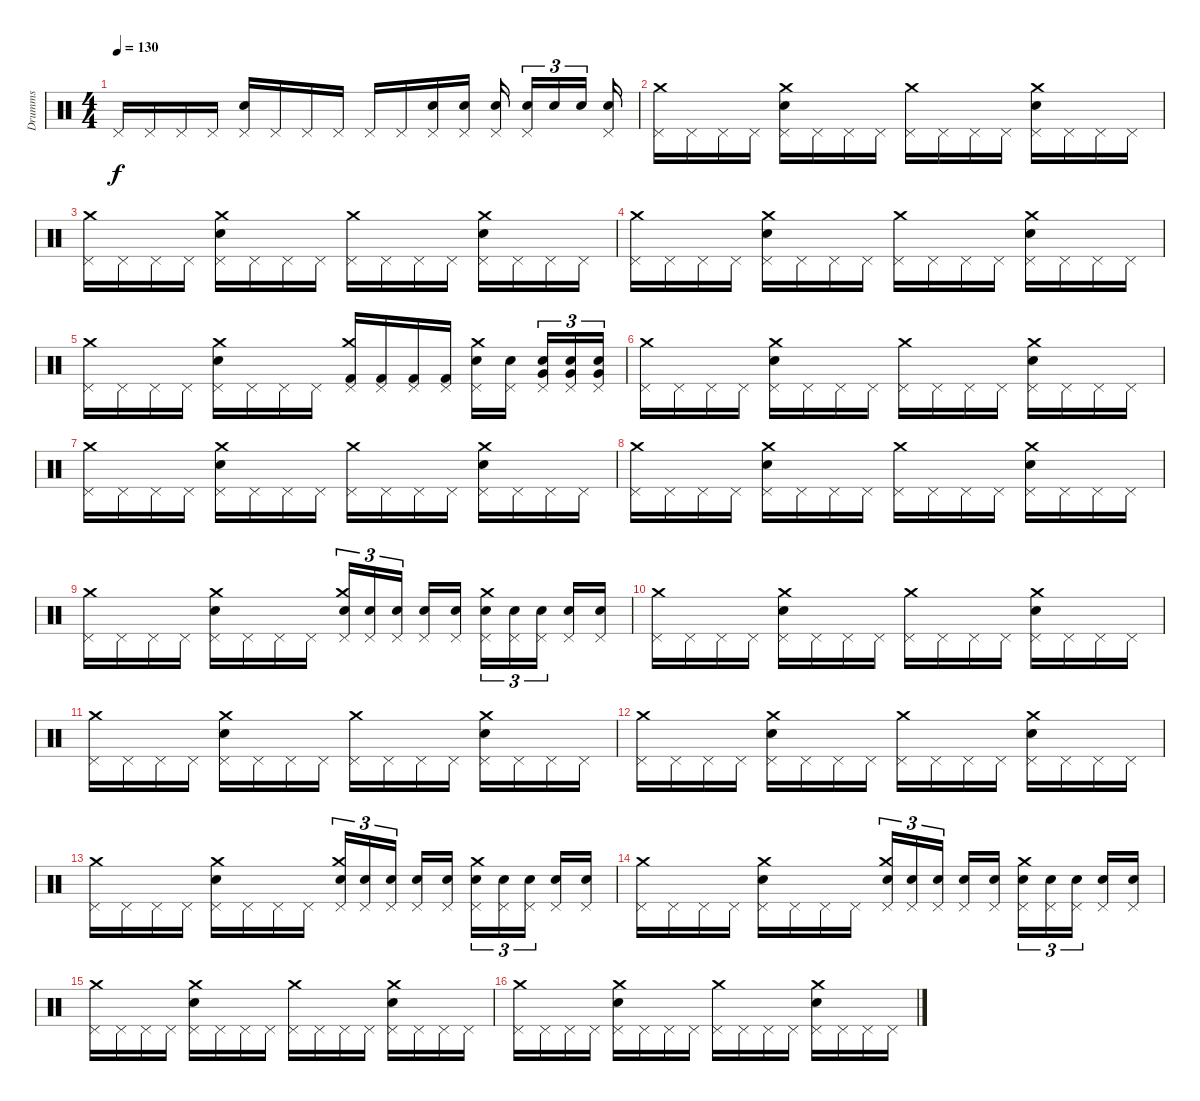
\track ("Drumms" "Drumms") {instrument percussion}
\staff {score}
\articulation defaults
\ts (4 4)
\tempo 130
\clef neutral
\ks c "Pedal Hi-Hat (hit)".16{dy f volume 11} "Pedal Hi-Hat (hit)".16 "Pedal Hi-Hat (hit)".16 "Pedal Hi-Hat (hit)".16
("Pedal Hi-Hat (hit)" "Electric Snare (hit)").16 "Pedal Hi-Hat (hit)".16 "Pedal Hi-Hat (hit)".16 "Pedal Hi-Hat (hit)".16 "Pedal Hi-Hat (hit)".16 "Pedal Hi-Hat (hit)".16 ("Pedal Hi-Hat (hit)" "Electric Snare (hit)").16 ("Pedal Hi-Hat (hit)" "Electric Snare (hit)").16 ("Pedal Hi-Hat (hit)" "Electric Snare (hit)").16 ("Pedal Hi-Hat (hit)" "Electric Snare (hit)").16{tu (3 2)} "Electric Snare (hit)".16{tu (3 2)} "Electric Snare (hit)".16{tu (3 2)} ("Pedal Hi-Hat (hit)" "Electric Snare (hit)").16 |
("Crash medium (hit)" "Pedal Hi-Hat (hit)").16 "Pedal Hi-Hat (hit)".16 "Pedal Hi-Hat (hit)".16 "Pedal Hi-Hat (hit)".16 ("Crash medium (hit)" "Electric Snare (hit)" "Pedal Hi-Hat (hit)").16 "Pedal Hi-Hat (hit)".16 "Pedal Hi-Hat (hit)".16 "Pedal Hi-Hat (hit)".16 ("Crash medium (hit)" "Pedal Hi-Hat (hit)").16 "Pedal Hi-Hat (hit)".16 "Pedal Hi-Hat (hit)".16 "Pedal Hi-Hat (hit)".16 ("Crash medium (hit)" "Electric Snare (hit)" "Pedal Hi-Hat (hit)").16 "Pedal Hi-Hat (hit)".16 "Pedal Hi-Hat (hit)".16 "Pedal Hi-Hat (hit)".16 |
("Crash medium (hit)" "Pedal Hi-Hat (hit)").16 "Pedal Hi-Hat (hit)".16 "Pedal Hi-Hat (hit)".16 "Pedal Hi-Hat (hit)".16 ("Crash medium (hit)" "Electric Snare (hit)" "Pedal Hi-Hat (hit)").16 "Pedal Hi-Hat (hit)".16 "Pedal Hi-Hat (hit)".16 "Pedal Hi-Hat (hit)".16 ("Crash medium (hit)" "Pedal Hi-Hat (hit)").16 "Pedal Hi-Hat (hit)".16 "Pedal Hi-Hat (hit)".16 "Pedal Hi-Hat (hit)".16 ("Crash medium (hit)" "Electric Snare (hit)" "Pedal Hi-Hat (hit)").16 "Pedal Hi-Hat (hit)".16 "Pedal Hi-Hat (hit)".16 "Pedal Hi-Hat (hit)".16 |
("Crash medium (hit)" "Pedal Hi-Hat (hit)").16 "Pedal Hi-Hat (hit)".16 "Pedal Hi-Hat (hit)".16 "Pedal Hi-Hat (hit)".16 ("Crash medium (hit)" "Electric Snare (hit)" "Pedal Hi-Hat (hit)").16 "Pedal Hi-Hat (hit)".16 "Pedal Hi-Hat (hit)".16 "Pedal Hi-Hat (hit)".16 ("Crash medium (hit)" "Pedal Hi-Hat (hit)").16 "Pedal Hi-Hat (hit)".16 "Pedal Hi-Hat (hit)".16 "Pedal Hi-Hat (hit)".16 ("Crash medium (hit)" "Electric Snare (hit)" "Pedal Hi-Hat (hit)").16 "Pedal Hi-Hat (hit)".16 "Pedal Hi-Hat (hit)".16 "Pedal Hi-Hat (hit)".16 |
("Crash medium (hit)" "Pedal Hi-Hat (hit)").16 "Pedal Hi-Hat (hit)".16 "Pedal Hi-Hat (hit)".16 "Pedal Hi-Hat (hit)".16 ("Crash medium (hit)" "Electric Snare (hit)" "Pedal Hi-Hat (hit)").16 "Pedal Hi-Hat (hit)".16 "Pedal Hi-Hat (hit)".16 "Pedal Hi-Hat (hit)".16 ("Crash medium (hit)" "Kick (hit) 2" "Pedal Hi-Hat (hit)").16 ("Kick (hit) 2" "Pedal Hi-Hat (hit)").16 ("Kick (hit) 2" "Pedal Hi-Hat (hit)").16 ("Kick (hit) 2" "Pedal Hi-Hat (hit)").16 ("Crash medium (hit)" "Electric Snare (hit)" "Pedal Hi-Hat (hit)").16 ("Electric Snare (hit)" "Pedal Hi-Hat (hit)").16 ("Very Low Tom (hit)" "Electric Snare (hit)" "Pedal Hi-Hat (hit)").16{tu (3 2)} ("Very Low Tom (hit)" "Electric Snare (hit)" "Pedal Hi-Hat (hit)").16{tu (3 2)} ("Very Low Tom (hit)" "Electric Snare (hit)" "Pedal Hi-Hat (hit)").16{tu (3 2)} |
("Crash medium (hit)" "Pedal Hi-Hat (hit)").16 "Pedal Hi-Hat (hit)".16 "Pedal Hi-Hat (hit)".16 "Pedal Hi-Hat (hit)".16 ("Crash medium (hit)" "Electric Snare (hit)" "Pedal Hi-Hat (hit)").16 "Pedal Hi-Hat (hit)".16 "Pedal Hi-Hat (hit)".16 "Pedal Hi-Hat (hit)".16 ("Crash medium (hit)" "Pedal Hi-Hat (hit)").16 "Pedal Hi-Hat (hit)".16 "Pedal Hi-Hat (hit)".16 "Pedal Hi-Hat (hit)".16 ("Crash medium (hit)" "Electric Snare (hit)" "Pedal Hi-Hat (hit)").16 "Pedal Hi-Hat (hit)".16 "Pedal Hi-Hat (hit)".16 "Pedal Hi-Hat (hit)".16 |
("Crash medium (hit)" "Pedal Hi-Hat (hit)").16 "Pedal Hi-Hat (hit)".16 "Pedal Hi-Hat (hit)".16 "Pedal Hi-Hat (hit)".16 ("Crash medium (hit)" "Electric Snare (hit)" "Pedal Hi-Hat (hit)").16 "Pedal Hi-Hat (hit)".16 "Pedal Hi-Hat (hit)".16 "Pedal Hi-Hat (hit)".16 ("Crash medium (hit)" "Pedal Hi-Hat (hit)").16 "Pedal Hi-Hat (hit)".16 "Pedal Hi-Hat (hit)".16 "Pedal Hi-Hat (hit)".16 ("Crash medium (hit)" "Electric Snare (hit)" "Pedal Hi-Hat (hit)").16 "Pedal Hi-Hat (hit)".16 "Pedal Hi-Hat (hit)".16 "Pedal Hi-Hat (hit)".16 |
("Crash medium (hit)" "Pedal Hi-Hat (hit)").16 "Pedal Hi-Hat (hit)".16 "Pedal Hi-Hat (hit)".16 "Pedal Hi-Hat (hit)".16 ("Crash medium (hit)" "Electric Snare (hit)" "Pedal Hi-Hat (hit)").16 "Pedal Hi-Hat (hit)".16 "Pedal Hi-Hat (hit)".16 "Pedal Hi-Hat (hit)".16 ("Crash medium (hit)" "Pedal Hi-Hat (hit)").16 "Pedal Hi-Hat (hit)".16 "Pedal Hi-Hat (hit)".16 "Pedal Hi-Hat (hit)".16 ("Crash medium (hit)" "Electric Snare (hit)" "Pedal Hi-Hat (hit)").16 "Pedal Hi-Hat (hit)".16 "Pedal Hi-Hat (hit)".16 "Pedal Hi-Hat (hit)".16 |
("Crash medium (hit)" "Pedal Hi-Hat (hit)").16 "Pedal Hi-Hat (hit)".16 "Pedal Hi-Hat (hit)".16 "Pedal Hi-Hat (hit)".16 ("Crash medium (hit)" "Electric Snare (hit)" "Pedal Hi-Hat (hit)").16 "Pedal Hi-Hat (hit)".16 "Pedal Hi-Hat (hit)".16 "Pedal Hi-Hat (hit)".16 ("Crash medium (hit)" "Snare (hit) 2" "Pedal Hi-Hat (hit)").16{tu (3 2)} ("Snare (hit) 2" "Pedal Hi-Hat (hit)").16{tu (3 2)} ("Snare (hit) 2" "Pedal Hi-Hat (hit)").16{tu (3 2)} ("Snare (hit) 2" "Pedal Hi-Hat (hit)").16 ("Snare (hit) 2" "Pedal Hi-Hat (hit)").16 ("Crash medium (hit)" "Electric Snare (hit)" "Pedal Hi-Hat (hit)").16{tu (3 2)} ("Electric Snare (hit)" "Pedal Hi-Hat (hit)").16{tu (3 2)} ("Electric Snare (hit)" "Pedal Hi-Hat (hit)").16{tu (3 2)} ("Electric Snare (hit)" "Pedal Hi-Hat (hit)").16 ("Electric Snare (hit)" "Pedal Hi-Hat (hit)").16 |
("Crash medium (hit)" "Pedal Hi-Hat (hit)").16 "Pedal Hi-Hat (hit)".16 "Pedal Hi-Hat (hit)".16 "Pedal Hi-Hat (hit)".16 ("Crash medium (hit)" "Electric Snare (hit)" "Pedal Hi-Hat (hit)").16 "Pedal Hi-Hat (hit)".16 "Pedal Hi-Hat (hit)".16 "Pedal Hi-Hat (hit)".16 ("Crash medium (hit)" "Pedal Hi-Hat (hit)").16 "Pedal Hi-Hat (hit)".16 "Pedal Hi-Hat (hit)".16 "Pedal Hi-Hat (hit)".16 ("Crash medium (hit)" "Electric Snare (hit)" "Pedal Hi-Hat (hit)").16 "Pedal Hi-Hat (hit)".16 "Pedal Hi-Hat (hit)".16 "Pedal Hi-Hat (hit)".16 |
("Crash medium (hit)" "Pedal Hi-Hat (hit)").16 "Pedal Hi-Hat (hit)".16 "Pedal Hi-Hat (hit)".16 "Pedal Hi-Hat (hit)".16 ("Crash medium (hit)" "Electric Snare (hit)" "Pedal Hi-Hat (hit)").16 "Pedal Hi-Hat (hit)".16 "Pedal Hi-Hat (hit)".16 "Pedal Hi-Hat (hit)".16 ("Crash medium (hit)" "Pedal Hi-Hat (hit)").16 "Pedal Hi-Hat (hit)".16 "Pedal Hi-Hat (hit)".16 "Pedal Hi-Hat (hit)".16 ("Crash medium (hit)" "Electric Snare (hit)" "Pedal Hi-Hat (hit)").16 "Pedal Hi-Hat (hit)".16 "Pedal Hi-Hat (hit)".16 "Pedal Hi-Hat (hit)".16 |
("Crash medium (hit)" "Pedal Hi-Hat (hit)").16 "Pedal Hi-Hat (hit)".16 "Pedal Hi-Hat (hit)".16 "Pedal Hi-Hat (hit)".16 ("Crash medium (hit)" "Electric Snare (hit)" "Pedal Hi-Hat (hit)").16 "Pedal Hi-Hat (hit)".16 "Pedal Hi-Hat (hit)".16 "Pedal Hi-Hat (hit)".16 ("Crash medium (hit)" "Pedal Hi-Hat (hit)").16 "Pedal Hi-Hat (hit)".16 "Pedal Hi-Hat (hit)".16 "Pedal Hi-Hat (hit)".16 ("Crash medium (hit)" "Electric Snare (hit)" "Pedal Hi-Hat (hit)").16 "Pedal Hi-Hat (hit)".16 "Pedal Hi-Hat (hit)".16 "Pedal Hi-Hat (hit)".16 |
("Crash medium (hit)" "Pedal Hi-Hat (hit)").16 "Pedal Hi-Hat (hit)".16 "Pedal Hi-Hat (hit)".16 "Pedal Hi-Hat (hit)".16 ("Crash medium (hit)" "Electric Snare (hit)" "Pedal Hi-Hat (hit)").16 "Pedal Hi-Hat (hit)".16 "Pedal Hi-Hat (hit)".16 "Pedal Hi-Hat (hit)".16 ("Crash medium (hit)" "Snare (hit) 2" "Pedal Hi-Hat (hit)").16{tu (3 2)} ("Snare (hit) 2" "Pedal Hi-Hat (hit)").16{tu (3 2)} ("Snare (hit) 2" "Pedal Hi-Hat (hit)").16{tu (3 2)} ("Snare (hit) 2" "Pedal Hi-Hat (hit)").16 ("Snare (hit) 2" "Pedal Hi-Hat (hit)").16 ("Crash medium (hit)" "Electric Snare (hit)" "Pedal Hi-Hat (hit)").16{tu (3 2)} ("Electric Snare (hit)" "Pedal Hi-Hat (hit)").16{tu (3 2)} ("Electric Snare (hit)" "Pedal Hi-Hat (hit)").16{tu (3 2)} ("Electric Snare (hit)" "Pedal Hi-Hat (hit)").16 ("Electric Snare (hit)" "Pedal Hi-Hat (hit)").16 |
("Crash medium (hit)" "Pedal Hi-Hat (hit)").16 "Pedal Hi-Hat (hit)".16 "Pedal Hi-Hat (hit)".16 "Pedal Hi-Hat (hit)".16 ("Crash medium (hit)" "Electric Snare (hit)" "Pedal Hi-Hat (hit)").16 "Pedal Hi-Hat (hit)".16 "Pedal Hi-Hat (hit)".16 "Pedal Hi-Hat (hit)".16 ("Crash medium (hit)" "Snare (hit) 2" "Pedal Hi-Hat (hit)").16{tu (3 2)} ("Snare (hit) 2" "Pedal Hi-Hat (hit)").16{tu (3 2)} ("Snare (hit) 2" "Pedal Hi-Hat (hit)").16{tu (3 2)} ("Snare (hit) 2" "Pedal Hi-Hat (hit)").16 ("Snare (hit) 2" "Pedal Hi-Hat (hit)").16 ("Crash medium (hit)" "Electric Snare (hit)" "Pedal Hi-Hat (hit)").16{tu (3 2)} ("Electric Snare (hit)" "Pedal Hi-Hat (hit)").16{tu (3 2)} ("Electric Snare (hit)" "Pedal Hi-Hat (hit)").16{tu (3 2)} ("Electric Snare (hit)" "Pedal Hi-Hat (hit)").16 ("Electric Snare (hit)" "Pedal Hi-Hat (hit)").16 |
("Crash medium (hit)" "Pedal Hi-Hat (hit)").16 "Pedal Hi-Hat (hit)".16 "Pedal Hi-Hat (hit)".16 "Pedal Hi-Hat (hit)".16 ("Crash medium (hit)" "Electric Snare (hit)" "Pedal Hi-Hat (hit)").16 "Pedal Hi-Hat (hit)".16 "Pedal Hi-Hat (hit)".16 "Pedal Hi-Hat (hit)".16 ("Crash medium (hit)" "Pedal Hi-Hat (hit)").16 "Pedal Hi-Hat (hit)".16 "Pedal Hi-Hat (hit)".16 "Pedal Hi-Hat (hit)".16 ("Crash medium (hit)" "Electric Snare (hit)" "Pedal Hi-Hat (hit)").16 "Pedal Hi-Hat (hit)".16 "Pedal Hi-Hat (hit)".16 "Pedal Hi-Hat (hit)".16 |
("Crash medium (hit)" "Pedal Hi-Hat (hit)").16 "Pedal Hi-Hat (hit)".16 "Pedal Hi-Hat (hit)".16 "Pedal Hi-Hat (hit)".16 ("Crash medium (hit)" "Electric Snare (hit)" "Pedal Hi-Hat (hit)").16 "Pedal Hi-Hat (hit)".16 "Pedal Hi-Hat (hit)".16 "Pedal Hi-Hat (hit)".16 ("Crash medium (hit)" "Pedal Hi-Hat (hit)").16 "Pedal Hi-Hat (hit)".16 "Pedal Hi-Hat (hit)".16 "Pedal Hi-Hat (hit)".16 ("Crash medium (hit)" "Electric Snare (hit)" "Pedal Hi-Hat (hit)").16 "Pedal Hi-Hat (hit)".16 "Pedal Hi-Hat (hit)".16 "Pedal Hi-Hat (hit)".16
